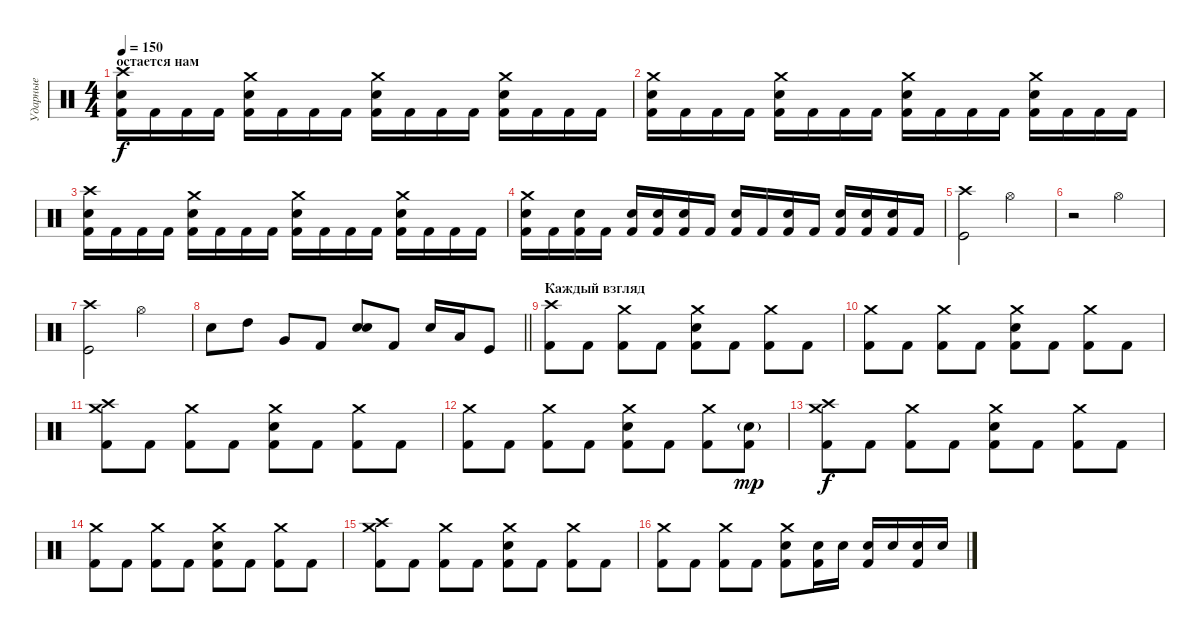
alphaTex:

\track ("Ударные" "Ударные") {instrument percussion}
\staff {score}
\articulation defaults
\ts (4 4)
\section ("" "остается нам")
\tempo 150
\clef neutral
\ks c
("Crash high (hit)" "Electric Snare (hit)" "Kick (hit) 2").16{dy f} "Kick (hit) 2".16 "Kick (hit) 2".16 "Kick (hit) 2".16 ("Crash medium (hit)" "Electric Snare (hit)" "Kick (hit) 2").16 "Kick (hit) 2".16 "Kick (hit) 2".16 "Kick (hit) 2".16 ("Crash medium (hit)" "Electric Snare (hit)" "Kick (hit) 2").16 "Kick (hit) 2".16 "Kick (hit) 2".16 "Kick (hit) 2".16 ("Crash medium (hit)" "Electric Snare (hit)" "Kick (hit) 2").16 "Kick (hit) 2".16 "Kick (hit) 2".16 "Kick (hit) 2".16 |
("Crash medium (hit)" "Electric Snare (hit)" "Kick (hit) 2").16 "Kick (hit) 2".16 "Kick (hit) 2".16 "Kick (hit) 2".16 ("Crash medium (hit)" "Electric Snare (hit)" "Kick (hit) 2").16 "Kick (hit) 2".16 "Kick (hit) 2".16 "Kick (hit) 2".16 ("Crash medium (hit)" "Electric Snare (hit)" "Kick (hit) 2").16 "Kick (hit) 2".16 "Kick (hit) 2".16 "Kick (hit) 2".16 ("Crash medium (hit)" "Electric Snare (hit)" "Kick (hit) 2").16 "Kick (hit) 2".16 "Kick (hit) 2".16 "Kick (hit) 2".16 |
("Crash high (hit)" "Electric Snare (hit)" "Kick (hit) 2").16 "Kick (hit) 2".16 "Kick (hit) 2".16 "Kick (hit) 2".16 ("Crash medium (hit)" "Electric Snare (hit)" "Kick (hit) 2").16 "Kick (hit) 2".16 "Kick (hit) 2".16 "Kick (hit) 2".16 ("Crash medium (hit)" "Electric Snare (hit)" "Kick (hit) 2").16 "Kick (hit) 2".16 "Kick (hit) 2".16 "Kick (hit) 2".16 ("Crash medium (hit)" "Electric Snare (hit)" "Kick (hit) 2").16 "Kick (hit) 2".16 "Kick (hit) 2".16 "Kick (hit) 2".16 |
("Crash medium (hit)" "Electric Snare (hit)" "Kick (hit) 2").16 "Kick (hit) 2".16 ("Electric Snare (hit)" "Kick (hit) 2").16 "Kick (hit) 2".16 ("Electric Snare (hit)" "Kick (hit) 2").16 ("Electric Snare (hit)" "Kick (hit) 2").16 ("Electric Snare (hit)" "Kick (hit) 2").16 "Kick (hit) 2".16 ("Electric Snare (hit)" "Kick (hit) 2").16 "Kick (hit) 2".16 ("Electric Snare (hit)" "Kick (hit) 2").16 "Kick (hit) 2".16 ("Electric Snare (hit)" "Kick (hit) 2").16 ("Electric Snare (hit)" "Kick (hit) 2").16 ("Electric Snare (hit)" "Kick (hit) 2").16 "Kick (hit) 2".16 |
("Crash high (hit)" "Kick (hit)").2 "Hi-Hat (open)".2 |
r.2 "Hi-Hat (open)".2 |
("Crash high (hit)" "Kick (hit)").2 "Hi-Hat (open)".2 |
\barLineRight lightlight "Electric Snare (hit)".8 "High Tom (hit)".8 "Very Low Tom (hit)".8 "Kick (hit) 2".8
("Electric Snare (hit)" "Electric Snare (hit)").8{bd 240} "Kick (hit) 2".8 "Electric Snare (hit)".16 "Low Tom (hit)".16 "Kick (hit)".8 |
\section ("" "Каждый взгляд")
("Crash high (hit)" "Kick (hit) 2").8 "Kick (hit) 2".8 ("Crash medium (hit)" "Kick (hit) 2").8 "Kick (hit) 2".8 ("Crash medium (hit)" "Electric Snare (hit)" "Kick (hit) 2").8 "Kick (hit) 2".8 ("Crash medium (hit)" "Kick (hit) 2").8 "Kick (hit) 2".8 |
("Crash medium (hit)" "Kick (hit) 2").8 "Kick (hit) 2".8 ("Crash medium (hit)" "Kick (hit) 2").8 "Kick (hit) 2".8 ("Crash medium (hit)" "Electric Snare (hit)" "Kick (hit) 2").8 "Kick (hit) 2".8 ("Crash medium (hit)" "Kick (hit) 2").8 "Kick (hit) 2".8 |
("Crash medium (hit)" "Crash high (hit)" "Kick (hit) 2").8 "Kick (hit) 2".8 ("Crash medium (hit)" "Kick (hit) 2").8 "Kick (hit) 2".8 ("Crash medium (hit)" "Electric Snare (hit)" "Kick (hit) 2").8 "Kick (hit) 2".8 ("Crash medium (hit)" "Kick (hit) 2").8 "Kick (hit) 2".8 |
("Crash medium (hit)" "Kick (hit) 2").8 "Kick (hit) 2".8 ("Crash medium (hit)" "Kick (hit) 2").8 "Kick (hit) 2".8 ("Crash medium (hit)" "Electric Snare (hit)" "Kick (hit) 2").8 "Kick (hit) 2".8 ("Crash medium (hit)" "Kick (hit) 2").8 ("Electric Snare (hit)"{g} "Kick (hit) 2").8{dy mp} |
("Crash high (hit)" "Crash medium (hit)" "Kick (hit) 2").8{dy f} "Kick (hit) 2".8 ("Crash medium (hit)" "Kick (hit) 2").8 "Kick (hit) 2".8 ("Crash medium (hit)" "Electric Snare (hit)" "Kick (hit) 2").8 "Kick (hit) 2".8 ("Crash medium (hit)" "Kick (hit) 2").8 "Kick (hit) 2".8 |
("Crash medium (hit)" "Kick (hit) 2").8 "Kick (hit) 2".8 ("Crash medium (hit)" "Kick (hit) 2").8 "Kick (hit) 2".8 ("Crash medium (hit)" "Electric Snare (hit)" "Kick (hit) 2").8 "Kick (hit) 2".8 ("Crash medium (hit)" "Kick (hit) 2").8 "Kick (hit) 2".8 |
("Crash medium (hit)" "Crash high (hit)" "Kick (hit) 2").8 "Kick (hit) 2".8 ("Crash medium (hit)" "Kick (hit) 2").8 "Kick (hit) 2".8 ("Crash medium (hit)" "Electric Snare (hit)" "Kick (hit) 2").8 "Kick (hit) 2".8 ("Crash medium (hit)" "Kick (hit) 2").8 "Kick (hit) 2".8 |
("Crash medium (hit)" "Kick (hit) 2").8 "Kick (hit) 2".8 ("Crash medium (hit)" "Kick (hit) 2").8 "Kick (hit) 2".8 ("Crash medium (hit)" "Electric Snare (hit)" "Kick (hit) 2").8 ("Electric Snare (hit)" "Kick (hit) 2").16 "Electric Snare (hit)".16 ("Electric Snare (hit)" "Kick (hit) 2").16 "Electric Snare (hit)".16 ("Electric Snare (hit)" "Kick (hit) 2").16 "Electric Snare (hit)".16
